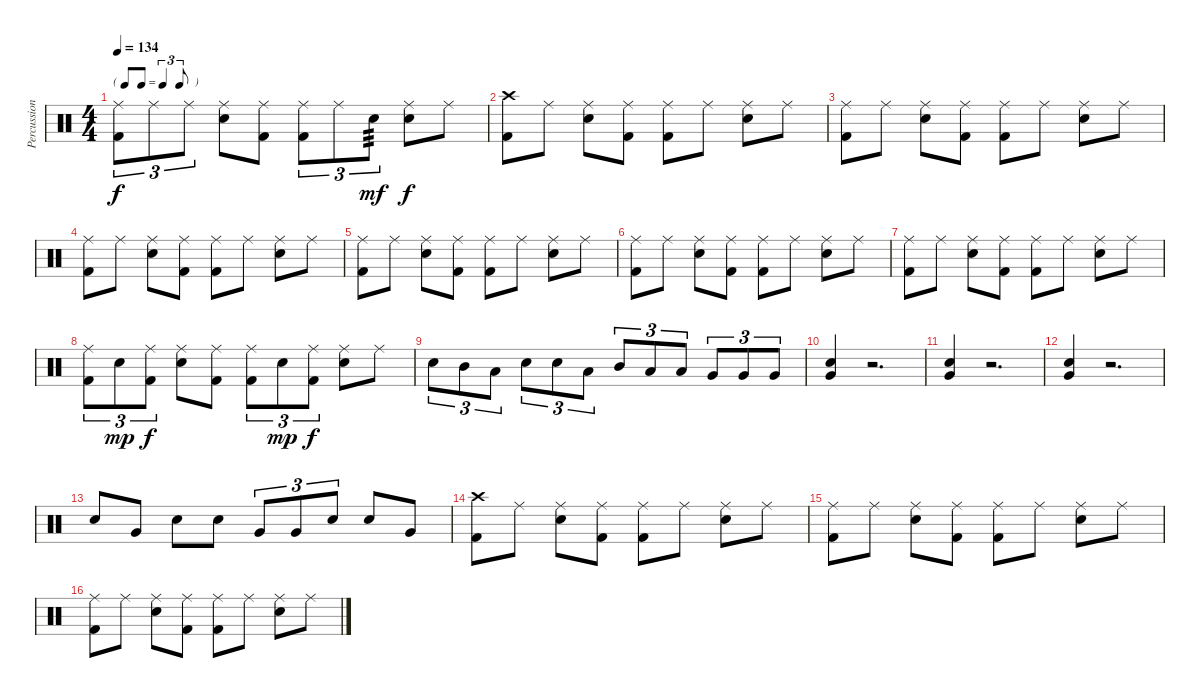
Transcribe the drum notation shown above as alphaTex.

\track ("Percussion" "Percussion") {instrument percussion}
\staff {score}
\articulation defaults
\ts (4 4)
\tf triplet8th
\tempo 134
\clef neutral
\ks c
("Ride (middle)" "Kick (hit) 2").8{tu (3 2) dy f} "Ride (middle)".8{tu (3 2)} "Ride (middle)".8{tu (3 2)} ("Ride (middle)" "Snare (hit) 2").8 ("Ride (middle)" "Kick (hit) 2").8 ("Ride (middle)" "Kick (hit) 2").8{tu (3 2)} "Ride (middle)".8{tu (3 2)} "Snare (hit) 2".8{tu (3 2) tp 3 dy mf} ("Ride (middle)" "Snare (hit) 2").8{dy f} "Ride (middle)".8 |
("Crash high (hit)" "Kick (hit) 2").8 "Ride (middle)".8 ("Ride (middle)" "Snare (hit) 2").8 ("Ride (middle)" "Kick (hit) 2").8 ("Ride (middle)" "Kick (hit) 2").8 "Ride (middle)".8 ("Ride (middle)" "Snare (hit) 2").8 "Ride (middle)".8 |
("Ride (middle)" "Kick (hit) 2").8 "Ride (middle)".8 ("Ride (middle)" "Snare (hit) 2").8 ("Ride (middle)" "Kick (hit) 2").8 ("Ride (middle)" "Kick (hit) 2").8 "Ride (middle)".8 ("Ride (middle)" "Snare (hit) 2").8 "Ride (middle)".8 |
("Ride (middle)" "Kick (hit) 2").8 "Ride (middle)".8 ("Ride (middle)" "Snare (hit) 2").8 ("Ride (middle)" "Kick (hit) 2").8 ("Ride (middle)" "Kick (hit) 2").8 "Ride (middle)".8 ("Ride (middle)" "Snare (hit) 2").8 "Ride (middle)".8 |
("Ride (middle)" "Kick (hit) 2").8 "Ride (middle)".8 ("Ride (middle)" "Snare (hit) 2").8 ("Ride (middle)" "Kick (hit) 2").8 ("Ride (middle)" "Kick (hit) 2").8 "Ride (middle)".8 ("Ride (middle)" "Snare (hit) 2").8 "Ride (middle)".8 |
("Ride (middle)" "Kick (hit) 2").8 "Ride (middle)".8 ("Ride (middle)" "Snare (hit) 2").8 ("Ride (middle)" "Kick (hit) 2").8 ("Ride (middle)" "Kick (hit) 2").8 "Ride (middle)".8 ("Ride (middle)" "Snare (hit) 2").8 "Ride (middle)".8 |
("Ride (middle)" "Kick (hit) 2").8 "Ride (middle)".8 ("Ride (middle)" "Snare (hit) 2").8 ("Ride (middle)" "Kick (hit) 2").8 ("Ride (middle)" "Kick (hit) 2").8 "Ride (middle)".8 ("Ride (middle)" "Snare (hit) 2").8 "Ride (middle)".8 |
("Ride (middle)" "Kick (hit) 2").8{tu (3 2)} "Snare (hit) 2".8{tu (3 2) dy mp} ("Ride (middle)" "Kick (hit) 2").8{tu (3 2) dy f} ("Ride (middle)" "Snare (hit) 2").8 ("Ride (middle)" "Kick (hit) 2").8 ("Ride (middle)" "Kick (hit) 2").8{tu (3 2)} "Snare (hit) 2".8{tu (3 2) dy mp} ("Ride (middle)" "Kick (hit) 2").8{tu (3 2) dy f} ("Ride (middle)" "Snare (hit) 2").8 "Ride (middle)".8 |
"Snare (hit) 2".8{tu (3 2)} "Mid Tom (hit)".8{tu (3 2)} "Low Tom (hit)".8{tu (3 2)} "Snare (hit) 2".8{tu (3 2)} "Snare (hit) 2".8{tu (3 2)} "Low Tom (hit)".8{tu (3 2)} "Mid Tom (hit)".8{tu (3 2)} "Low Tom (hit)".8{tu (3 2)} "Low Tom (hit)".8{tu (3 2)} "Very Low Tom (hit)".8{tu (3 2)} "Very Low Tom (hit)".8{tu (3 2)} "Very Low Tom (hit)".8{tu (3 2)} |
("Snare (hit) 2" "Very Low Tom (hit)").4 r.2{d} |
("Snare (hit) 2" "Very Low Tom (hit)").4 r.2{d} |
("Snare (hit) 2" "Very Low Tom (hit)").4 r.2{d} |
"Snare (hit) 2".8 "Very Low Tom (hit)".8 "Snare (hit) 2".8 "Snare (hit) 2".8 "Very Low Tom (hit)".8{tu (3 2)} "Very Low Tom (hit)".8{tu (3 2)} "Snare (hit) 2".8{tu (3 2)} "Snare (hit) 2".8 "Very Low Tom (hit)".8 |
("Crash high (hit)" "Kick (hit) 2").8 "Ride (middle)".8 ("Ride (middle)" "Snare (hit) 2").8 ("Ride (middle)" "Kick (hit) 2").8 ("Ride (middle)" "Kick (hit) 2").8 "Ride (middle)".8 ("Ride (middle)" "Snare (hit) 2").8 "Ride (middle)".8 |
("Ride (middle)" "Kick (hit) 2").8 "Ride (middle)".8 ("Ride (middle)" "Snare (hit) 2").8 ("Ride (middle)" "Kick (hit) 2").8 ("Ride (middle)" "Kick (hit) 2").8 "Ride (middle)".8 ("Ride (middle)" "Snare (hit) 2").8 "Ride (middle)".8 |
("Ride (middle)" "Kick (hit) 2").8 "Ride (middle)".8 ("Ride (middle)" "Snare (hit) 2").8 ("Ride (middle)" "Kick (hit) 2").8 ("Ride (middle)" "Kick (hit) 2").8 "Ride (middle)".8 ("Ride (middle)" "Snare (hit) 2").8 "Ride (middle)".8
